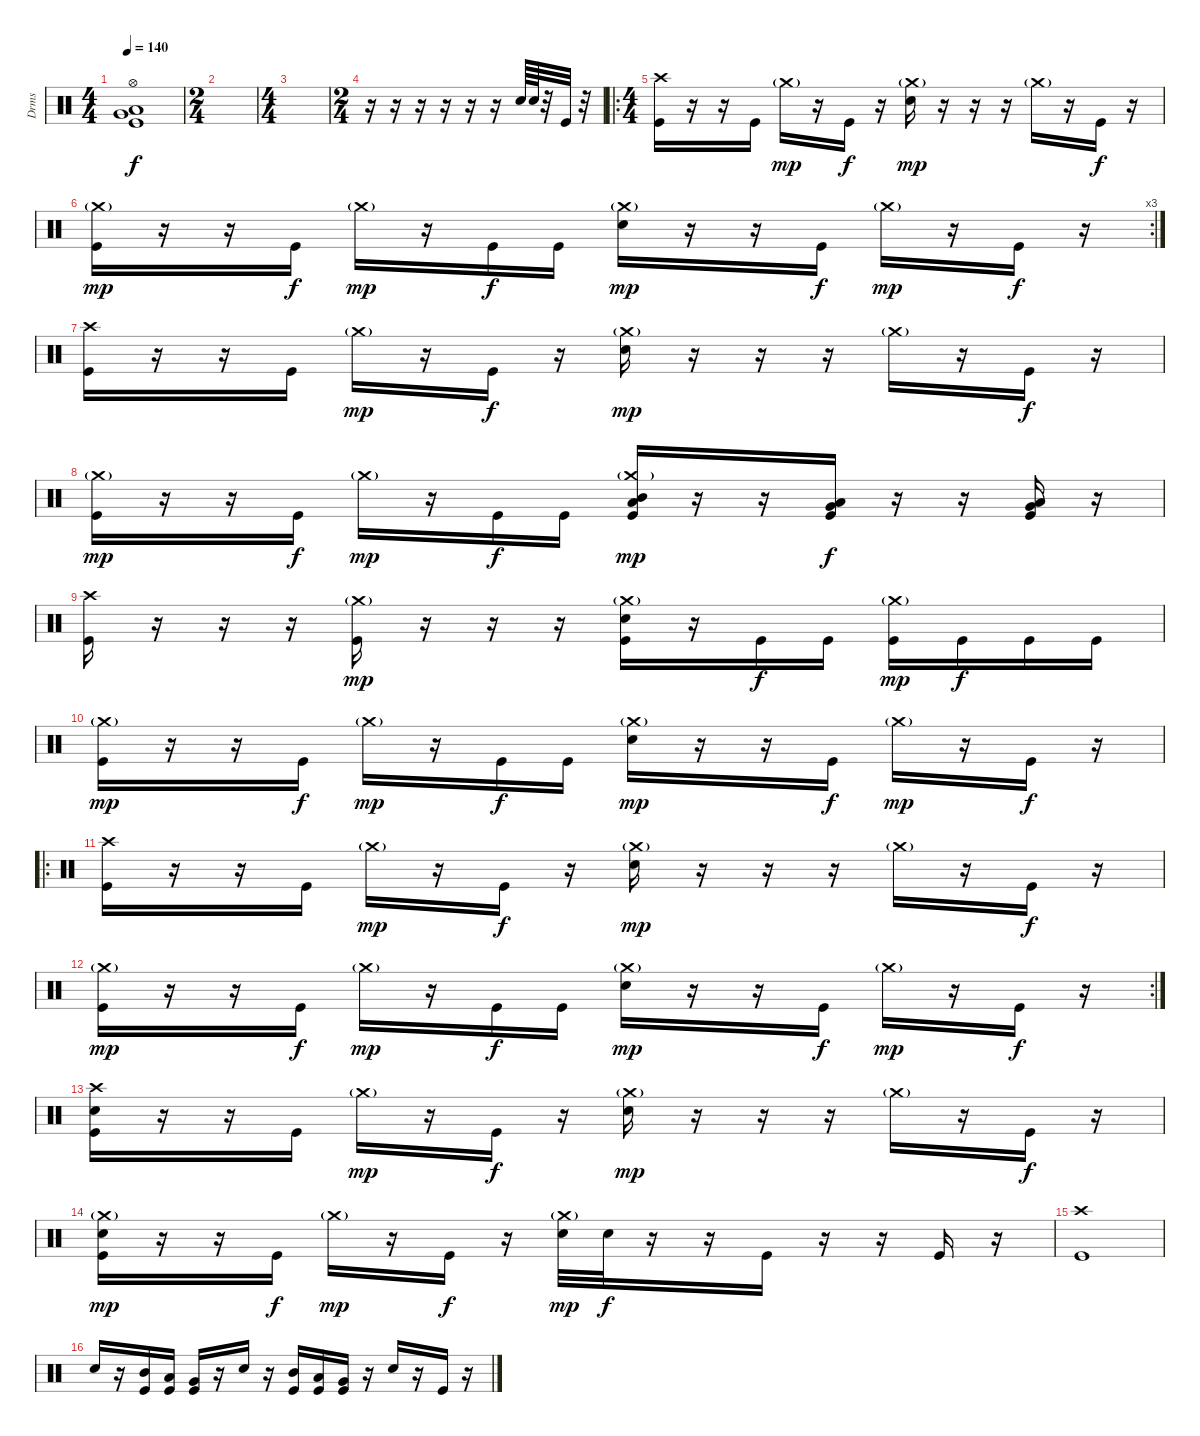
\track ("Drms" "Drms") {instrument percussion}
\staff {score}
\articulation defaults
\ts (4 4)
\tempo 140
\clef neutral
\ks c
("Hi-Hat (open)" "Low Floor Tom (hit)" "Very Low Tom (hit)" "Kick (hit)").1{dy f} |
\ts (2 4)
|
\ts (4 4)
|
\ts (2 4)
r.16 r.16 r.16 r.16 r.16 r.16 "Electric Snare (hit)".64 "Electric Snare (hit)".64 r.32 "Kick (hit)".32 r.32 |
\ro
\ts (4 4)
("Crash high (hit)" "Kick (hit)").16 r.16 r.16 "Kick (hit)".16 "Crash medium (hit)"{g}.16{dy mp} r.16 "Kick (hit)".16{dy f} r.16 ("Crash medium (hit)"{g} "Electric Snare (hit)").16{dy mp} r.16 r.16 r.16 "Crash medium (hit)"{g}.16 r.16 "Kick (hit)".16{dy f} r.16 |
\rc 3
("Crash medium (hit)"{g} "Kick (hit)").16{dy mp} r.16 r.16 "Kick (hit)".16{dy f} "Crash medium (hit)"{g}.16{dy mp} r.16 "Kick (hit)".16{dy f} "Kick (hit)".16 ("Crash medium (hit)"{g} "Electric Snare (hit)").16{dy mp} r.16 r.16 "Kick (hit)".16{dy f} "Crash medium (hit)"{g}.16{dy mp} r.16 "Kick (hit)".16{dy f} r.16 |
("Crash high (hit)" "Kick (hit)").16 r.16 r.16 "Kick (hit)".16 "Crash medium (hit)"{g}.16{dy mp} r.16 "Kick (hit)".16{dy f} r.16 ("Crash medium (hit)"{g} "Electric Snare (hit)").16{dy mp} r.16 r.16 r.16 "Crash medium (hit)"{g}.16 r.16 "Kick (hit)".16{dy f} r.16 |
("Crash medium (hit)"{g} "Kick (hit)").16{dy mp} r.16 r.16 "Kick (hit)".16{dy f} "Crash medium (hit)"{g}.16{dy mp} r.16 "Kick (hit)".16{dy f} "Kick (hit)".16 ("Crash medium (hit)"{g} "Low Tom (hit)" "Mid Tom (hit)" "Kick (hit)").16{dy mp} r.16 r.16 ("Very Low Tom (hit)" "Low Tom (hit)" "Kick (hit)").16{dy f} r.16 r.16 ("Low Floor Tom (hit)" "Very Low Tom (hit)" "Kick (hit)").16 r.16 |
("Crash high (hit)" "Kick (hit)").16 r.16 r.16 r.16 ("Crash medium (hit)"{g} "Kick (hit)").16{dy mp} r.16 r.16 r.16 ("Crash medium (hit)"{g} "Electric Snare (hit)" "Kick (hit)").16 r.16 "Kick (hit)".16{dy f} "Kick (hit)".16 ("Crash medium (hit)"{g} "Kick (hit)").16{dy mp} "Kick (hit)".16{dy f} "Kick (hit)".16 "Kick (hit)".16 |
("Crash medium (hit)"{g} "Kick (hit)").16{dy mp} r.16 r.16 "Kick (hit)".16{dy f} "Crash medium (hit)"{g}.16{dy mp} r.16 "Kick (hit)".16{dy f} "Kick (hit)".16 ("Crash medium (hit)"{g} "Electric Snare (hit)").16{dy mp} r.16 r.16 "Kick (hit)".16{dy f} "Crash medium (hit)"{g}.16{dy mp} r.16 "Kick (hit)".16{dy f} r.16 |
\ro
("Crash high (hit)" "Kick (hit)").16 r.16 r.16 "Kick (hit)".16 "Crash medium (hit)"{g}.16{dy mp} r.16 "Kick (hit)".16{dy f} r.16 ("Crash medium (hit)"{g} "Electric Snare (hit)").16{dy mp} r.16 r.16 r.16 "Crash medium (hit)"{g}.16 r.16 "Kick (hit)".16{dy f} r.16 |
\rc 2
("Crash medium (hit)"{g} "Kick (hit)").16{dy mp} r.16 r.16 "Kick (hit)".16{dy f} "Crash medium (hit)"{g}.16{dy mp} r.16 "Kick (hit)".16{dy f} "Kick (hit)".16 ("Crash medium (hit)"{g} "Electric Snare (hit)").16{dy mp} r.16 r.16 "Kick (hit)".16{dy f} "Crash medium (hit)"{g}.16{dy mp} r.16 "Kick (hit)".16{dy f} r.16 |
("Crash high (hit)" "Electric Snare (hit)" "Kick (hit)").16 r.16 r.16 "Kick (hit)".16 "Crash medium (hit)"{g}.16{dy mp} r.16 "Kick (hit)".16{dy f} r.16 ("Crash medium (hit)"{g} "Electric Snare (hit)").16{dy mp} r.16 r.16 r.16 "Crash medium (hit)"{g}.16 r.16 "Kick (hit)".16{dy f} r.16 |
("Crash medium (hit)"{g} "Electric Snare (hit)" "Kick (hit)").16{dy mp} r.16 r.16 "Kick (hit)".16{dy f} "Crash medium (hit)"{g}.16{dy mp} r.16 "Kick (hit)".16{dy f} r.16 ("Crash medium (hit)"{g} "Electric Snare (hit)").32{dy mp} "Electric Snare (hit)".32{dy f} r.16 r.16 "Kick (hit)".16 r.16 r.16 "Kick (hit)".16 r.16 |
("Crash high (hit)" "Kick (hit)").1 |
"Electric Snare (hit)".16 r.16 ("Mid Tom (hit)" "Kick (hit)").16 ("Low Tom (hit)" "Kick (hit)").16 ("Very Low Tom (hit)" "Kick (hit)").16 r.16 "Electric Snare (hit)".16 r.16 ("Mid Tom (hit)" "Kick (hit)").16 ("Low Tom (hit)" "Kick (hit)").16 ("Very Low Tom (hit)" "Kick (hit)").16 r.16 "Electric Snare (hit)".16 r.16 "Kick (hit)".16 r.16
